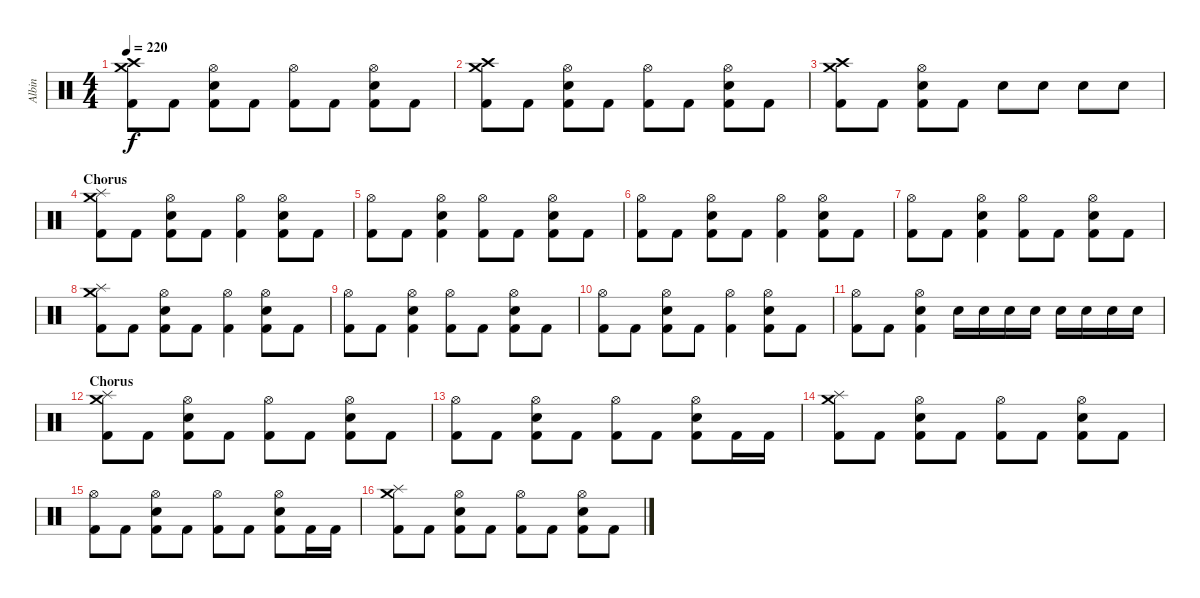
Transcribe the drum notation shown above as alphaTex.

\track ("Albin" "Albin") {instrument percussion}
\staff {score}
\articulation defaults
\ts (4 4)
\tempo 220
\clef neutral
\ks c
("Kick (hit) 2" "Crash high (hit)" "Crash medium (hit)").8{dy f} "Kick (hit) 2".8 ("Kick (hit) 2" "Electric Snare (hit)" "Hi-Hat (open)").8 "Kick (hit) 2".8 ("Kick (hit) 2" "Hi-Hat (open)").8 "Kick (hit) 2".8 ("Kick (hit) 2" "Electric Snare (hit)" "Hi-Hat (open)").8 "Kick (hit) 2".8 |
("Kick (hit) 2" "Crash high (hit)" "Crash medium (hit)").8 "Kick (hit) 2".8 ("Kick (hit) 2" "Electric Snare (hit)" "Hi-Hat (open)").8 "Kick (hit) 2".8 ("Kick (hit) 2" "Hi-Hat (open)").8 "Kick (hit) 2".8 ("Kick (hit) 2" "Electric Snare (hit)" "Hi-Hat (open)").8 "Kick (hit) 2".8 |
("Kick (hit) 2" "Crash high (hit)" "Crash medium (hit)").8 "Kick (hit) 2".8 ("Kick (hit) 2" "Electric Snare (hit)" "Hi-Hat (open)").8 "Kick (hit) 2".8 "Electric Snare (hit)".8 "Electric Snare (hit)".8 "Electric Snare (hit)".8 "Electric Snare (hit)".8 |
\section ("" "Chorus")
("Kick (hit) 2" "Crash medium (hit)" "Splash (hit)").8 "Kick (hit) 2".8 ("Kick (hit) 2" "Electric Snare (hit)" "Hi-Hat (open)").8 "Kick (hit) 2".8 ("Kick (hit) 2" "Hi-Hat (open)").4 ("Kick (hit) 2" "Electric Snare (hit)" "Hi-Hat (open)").8 "Kick (hit) 2".8 |
("Kick (hit) 2" "Hi-Hat (open)").8 "Kick (hit) 2".8 ("Kick (hit) 2" "Electric Snare (hit)" "Hi-Hat (open)").4 ("Kick (hit) 2" "Hi-Hat (open)").8 "Kick (hit) 2".8 ("Kick (hit) 2" "Electric Snare (hit)" "Hi-Hat (open)").8 "Kick (hit) 2".8 |
("Kick (hit) 2" "Hi-Hat (open)").8 "Kick (hit) 2".8 ("Kick (hit) 2" "Electric Snare (hit)" "Hi-Hat (open)").8 "Kick (hit) 2".8 ("Kick (hit) 2" "Hi-Hat (open)").4 ("Kick (hit) 2" "Electric Snare (hit)" "Hi-Hat (open)").8 "Kick (hit) 2".8 |
("Kick (hit) 2" "Hi-Hat (open)").8 "Kick (hit) 2".8 ("Kick (hit) 2" "Electric Snare (hit)" "Hi-Hat (open)").4 ("Kick (hit) 2" "Hi-Hat (open)").8 "Kick (hit) 2".8 ("Kick (hit) 2" "Electric Snare (hit)" "Hi-Hat (open)").8 "Kick (hit) 2".8 |
("Kick (hit) 2" "Crash medium (hit)" "Splash (hit)").8 "Kick (hit) 2".8 ("Kick (hit) 2" "Electric Snare (hit)" "Hi-Hat (open)").8 "Kick (hit) 2".8 ("Kick (hit) 2" "Hi-Hat (open)").4 ("Kick (hit) 2" "Electric Snare (hit)" "Hi-Hat (open)").8 "Kick (hit) 2".8 |
("Kick (hit) 2" "Hi-Hat (open)").8 "Kick (hit) 2".8 ("Kick (hit) 2" "Electric Snare (hit)" "Hi-Hat (open)").4 ("Kick (hit) 2" "Hi-Hat (open)").8 "Kick (hit) 2".8 ("Kick (hit) 2" "Electric Snare (hit)" "Hi-Hat (open)").8 "Kick (hit) 2".8 |
("Kick (hit) 2" "Hi-Hat (open)").8 "Kick (hit) 2".8 ("Kick (hit) 2" "Electric Snare (hit)" "Hi-Hat (open)").8 "Kick (hit) 2".8 ("Kick (hit) 2" "Hi-Hat (open)").4 ("Kick (hit) 2" "Electric Snare (hit)" "Hi-Hat (open)").8 "Kick (hit) 2".8 |
("Kick (hit) 2" "Hi-Hat (open)").8 "Kick (hit) 2".8 ("Kick (hit) 2" "Electric Snare (hit)" "Hi-Hat (open)").4 "Electric Snare (hit)".16 "Electric Snare (hit)".16 "Electric Snare (hit)".16 "Electric Snare (hit)".16 "Electric Snare (hit)".16 "Electric Snare (hit)".16 "Electric Snare (hit)".16 "Electric Snare (hit)".16 |
\section ("" "Chorus")
("Kick (hit) 2" "Crash medium (hit)" "Splash (hit)").8 "Kick (hit) 2".8 ("Kick (hit) 2" "Electric Snare (hit)" "Hi-Hat (open)").8 "Kick (hit) 2".8 ("Kick (hit) 2" "Hi-Hat (open)").8 "Kick (hit) 2".8 ("Kick (hit) 2" "Electric Snare (hit)" "Hi-Hat (open)").8 "Kick (hit) 2".8 |
("Kick (hit) 2" "Hi-Hat (open)").8 "Kick (hit) 2".8 ("Kick (hit) 2" "Electric Snare (hit)" "Hi-Hat (open)").8 "Kick (hit) 2".8 ("Kick (hit) 2" "Hi-Hat (open)").8 "Kick (hit) 2".8 ("Kick (hit) 2" "Electric Snare (hit)" "Hi-Hat (open)").8 "Kick (hit) 2".16 "Kick (hit) 2".16 |
("Kick (hit) 2" "Crash medium (hit)" "Splash (hit)").8 "Kick (hit) 2".8 ("Kick (hit) 2" "Electric Snare (hit)" "Hi-Hat (open)").8 "Kick (hit) 2".8 ("Kick (hit) 2" "Hi-Hat (open)").8 "Kick (hit) 2".8 ("Kick (hit) 2" "Electric Snare (hit)" "Hi-Hat (open)").8 "Kick (hit) 2".8 |
("Kick (hit) 2" "Hi-Hat (open)").8 "Kick (hit) 2".8 ("Kick (hit) 2" "Electric Snare (hit)" "Hi-Hat (open)").8 "Kick (hit) 2".8 ("Kick (hit) 2" "Hi-Hat (open)").8 "Kick (hit) 2".8 ("Kick (hit) 2" "Electric Snare (hit)" "Hi-Hat (open)").8 "Kick (hit) 2".16 "Kick (hit) 2".16 |
("Kick (hit) 2" "Crash medium (hit)" "Splash (hit)").8 "Kick (hit) 2".8 ("Kick (hit) 2" "Electric Snare (hit)" "Hi-Hat (open)").8 "Kick (hit) 2".8 ("Kick (hit) 2" "Hi-Hat (open)").8 "Kick (hit) 2".8 ("Kick (hit) 2" "Electric Snare (hit)" "Hi-Hat (open)").8 "Kick (hit) 2".8
